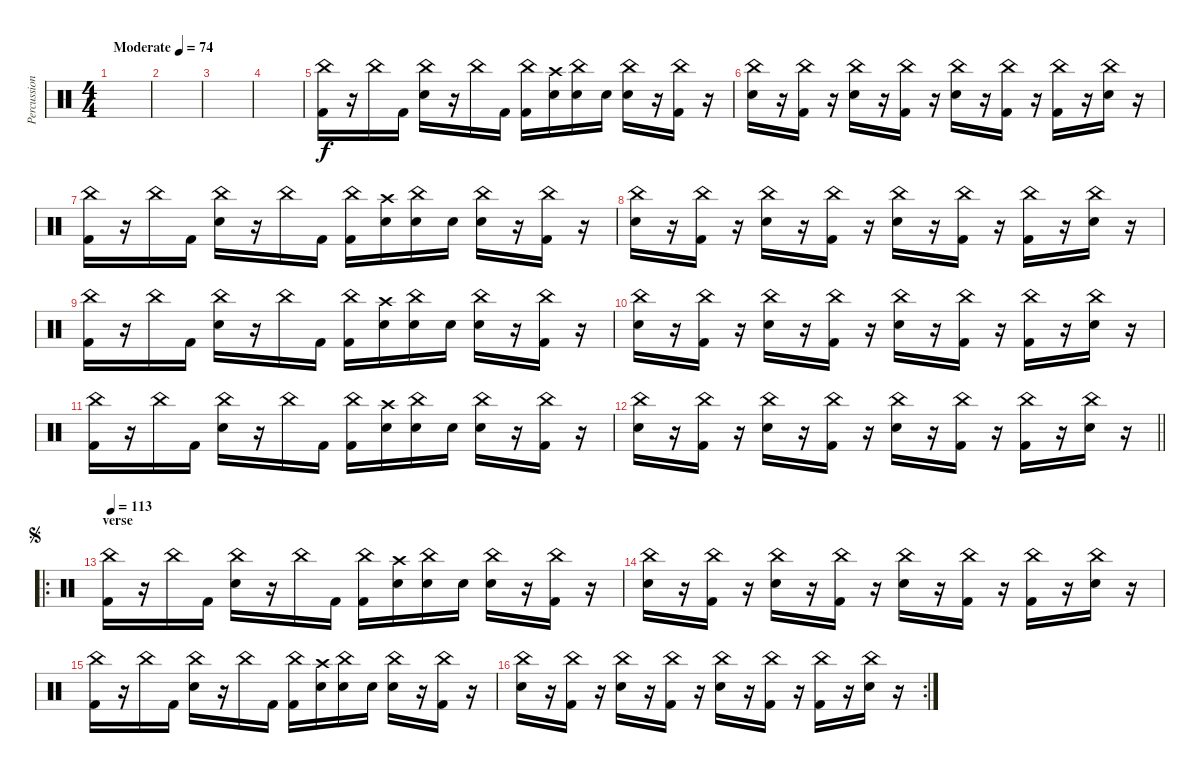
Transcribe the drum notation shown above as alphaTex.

\track ("Percussion" "Percussion") {instrument percussion}
\staff {score}
\articulation defaults
\ts (4 4)
\tempo (74 "Moderate")
\clef neutral
\ks c
|
|
|
|
("Kick (hit) 2" "China (hit)").16 r.16 "China (hit)".16 "Kick (hit) 2".16 ("Electric Snare (hit)" "China (hit)").16 r.16 "China (hit)".16 "Kick (hit) 2".16 ("Kick (hit) 2" "China (hit)").16 ("Electric Snare (hit)" "Crash high (hit)").16 ("Electric Snare (hit)" "China (hit)").16 "Electric Snare (hit)".16 ("Electric Snare (hit)" "China (hit)").16 r.16 ("Kick (hit) 2" "China (hit)").16 r.16 |
("Electric Snare (hit)" "China (hit)").16 r.16 ("Kick (hit) 2" "China (hit)").16 r.16 ("Electric Snare (hit)" "China (hit)").16 r.16 ("Kick (hit) 2" "China (hit)").16 r.16 ("Electric Snare (hit)" "China (hit)").16 r.16 ("Kick (hit) 2" "China (hit)").16 r.16 ("Kick (hit) 2" "China (hit)").16 r.16 ("Electric Snare (hit)" "China (hit)").16 r.16 |
("Kick (hit) 2" "China (hit)").16 r.16 "China (hit)".16 "Kick (hit) 2".16 ("Electric Snare (hit)" "China (hit)").16 r.16 "China (hit)".16 "Kick (hit) 2".16 ("Kick (hit) 2" "China (hit)").16 ("Electric Snare (hit)" "Crash high (hit)").16 ("Electric Snare (hit)" "China (hit)").16 "Electric Snare (hit)".16 ("Electric Snare (hit)" "China (hit)").16 r.16 ("Kick (hit) 2" "China (hit)").16 r.16 |
("Electric Snare (hit)" "China (hit)").16 r.16 ("Kick (hit) 2" "China (hit)").16 r.16 ("Electric Snare (hit)" "China (hit)").16 r.16 ("Kick (hit) 2" "China (hit)").16 r.16 ("Electric Snare (hit)" "China (hit)").16 r.16 ("Kick (hit) 2" "China (hit)").16 r.16 ("Kick (hit) 2" "China (hit)").16 r.16 ("Electric Snare (hit)" "China (hit)").16 r.16 |
("Kick (hit) 2" "China (hit)").16 r.16 "China (hit)".16 "Kick (hit) 2".16 ("Electric Snare (hit)" "China (hit)").16 r.16 "China (hit)".16 "Kick (hit) 2".16 ("Kick (hit) 2" "China (hit)").16 ("Electric Snare (hit)" "Crash high (hit)").16 ("Electric Snare (hit)" "China (hit)").16 "Electric Snare (hit)".16 ("Electric Snare (hit)" "China (hit)").16 r.16 ("Kick (hit) 2" "China (hit)").16 r.16 |
("Electric Snare (hit)" "China (hit)").16 r.16 ("Kick (hit) 2" "China (hit)").16 r.16 ("Electric Snare (hit)" "China (hit)").16 r.16 ("Kick (hit) 2" "China (hit)").16 r.16 ("Electric Snare (hit)" "China (hit)").16 r.16 ("Kick (hit) 2" "China (hit)").16 r.16 ("Kick (hit) 2" "China (hit)").16 r.16 ("Electric Snare (hit)" "China (hit)").16 r.16 |
("Kick (hit) 2" "China (hit)").16 r.16 "China (hit)".16 "Kick (hit) 2".16 ("Electric Snare (hit)" "China (hit)").16 r.16 "China (hit)".16 "Kick (hit) 2".16 ("Kick (hit) 2" "China (hit)").16 ("Electric Snare (hit)" "Crash high (hit)").16 ("Electric Snare (hit)" "China (hit)").16 "Electric Snare (hit)".16 ("Electric Snare (hit)" "China (hit)").16 r.16 ("Kick (hit) 2" "China (hit)").16 r.16 |
\barLineRight lightlight
("Electric Snare (hit)" "China (hit)").16 r.16 ("Kick (hit) 2" "China (hit)").16 r.16 ("Electric Snare (hit)" "China (hit)").16 r.16 ("Kick (hit) 2" "China (hit)").16 r.16 ("Electric Snare (hit)" "China (hit)").16 r.16 ("Kick (hit) 2" "China (hit)").16 r.16 ("Kick (hit) 2" "China (hit)").16 r.16 ("Electric Snare (hit)" "China (hit)").16 r.16 |
\ro
\section ("" "verse")
\jump segno
\tempo 113
("Kick (hit) 2" "China (hit)").16 r.16 "China (hit)".16 "Kick (hit) 2".16 ("Electric Snare (hit)" "China (hit)").16 r.16 "China (hit)".16 "Kick (hit) 2".16 ("Kick (hit) 2" "China (hit)").16 ("Electric Snare (hit)" "Crash high (hit)").16 ("Electric Snare (hit)" "China (hit)").16 "Electric Snare (hit)".16 ("Electric Snare (hit)" "China (hit)").16 r.16 ("Kick (hit) 2" "China (hit)").16 r.16 |
("Electric Snare (hit)" "China (hit)").16 r.16 ("Kick (hit) 2" "China (hit)").16 r.16 ("Electric Snare (hit)" "China (hit)").16 r.16 ("Kick (hit) 2" "China (hit)").16 r.16 ("Electric Snare (hit)" "China (hit)").16 r.16 ("Kick (hit) 2" "China (hit)").16 r.16 ("Kick (hit) 2" "China (hit)").16 r.16 ("Electric Snare (hit)" "China (hit)").16 r.16 |
("Kick (hit) 2" "China (hit)").16 r.16 "China (hit)".16 "Kick (hit) 2".16 ("Electric Snare (hit)" "China (hit)").16 r.16 "China (hit)".16 "Kick (hit) 2".16 ("Kick (hit) 2" "China (hit)").16 ("Electric Snare (hit)" "Crash high (hit)").16 ("Electric Snare (hit)" "China (hit)").16 "Electric Snare (hit)".16 ("Electric Snare (hit)" "China (hit)").16 r.16 ("Kick (hit) 2" "China (hit)").16 r.16 |
\rc 2
("Electric Snare (hit)" "China (hit)").16 r.16 ("Kick (hit) 2" "China (hit)").16 r.16 ("Electric Snare (hit)" "China (hit)").16 r.16 ("Kick (hit) 2" "China (hit)").16 r.16 ("Electric Snare (hit)" "China (hit)").16 r.16 ("Kick (hit) 2" "China (hit)").16 r.16 ("Kick (hit) 2" "China (hit)").16 r.16 ("Electric Snare (hit)" "China (hit)").16 r.16
